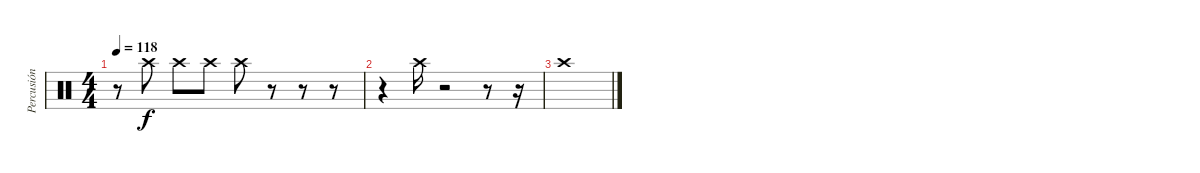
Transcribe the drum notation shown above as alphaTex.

\track ("Percusión" "Percusión") {instrument percussion}
\staff {score}
\articulation defaults
\ts (4 4)
\tempo 118
\clef neutral
\ks c
r.8{dy f} "Crash high (hit)".8 "Crash high (hit)".8 "Crash high (hit)".8 "Crash high (hit)".8 r.8 r.8 r.8 |
r.4 "Crash high (hit)".16 r.2 r.8 r.16 |
"Crash high (hit)".1
